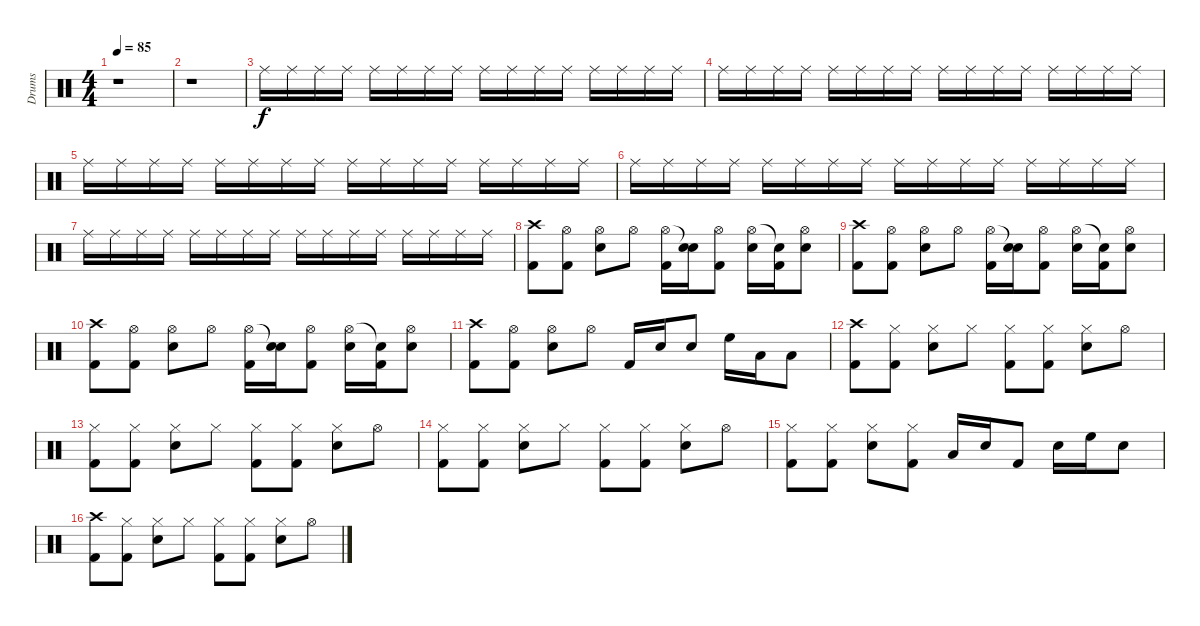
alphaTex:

\track ("Drums" "Drums") {instrument percussion}
\staff {score}
\articulation defaults
\ts (4 4)
\tempo 85
\clef neutral
\ks c
r.1{dy f} |
r.1 |
"Ride (middle)".16 "Ride (middle)".16 "Ride (middle)".16 "Ride (middle)".16 "Ride (middle)".16 "Ride (middle)".16 "Ride (middle)".16 "Ride (middle)".16 "Ride (middle)".16 "Ride (middle)".16 "Ride (middle)".16 "Ride (middle)".16 "Ride (middle)".16 "Ride (middle)".16 "Ride (middle)".16 "Ride (middle)".16 |
"Ride (middle)".16 "Ride (middle)".16 "Ride (middle)".16 "Ride (middle)".16 "Ride (middle)".16 "Ride (middle)".16 "Ride (middle)".16 "Ride (middle)".16 "Ride (middle)".16 "Ride (middle)".16 "Ride (middle)".16 "Ride (middle)".16 "Ride (middle)".16 "Ride (middle)".16 "Ride (middle)".16 "Ride (middle)".16 |
"Ride (middle)".16 "Ride (middle)".16 "Ride (middle)".16 "Ride (middle)".16 "Ride (middle)".16 "Ride (middle)".16 "Ride (middle)".16 "Ride (middle)".16 "Ride (middle)".16 "Ride (middle)".16 "Ride (middle)".16 "Ride (middle)".16 "Ride (middle)".16 "Ride (middle)".16 "Ride (middle)".16 "Ride (middle)".16 |
"Ride (middle)".16 "Ride (middle)".16 "Ride (middle)".16 "Ride (middle)".16 "Ride (middle)".16 "Ride (middle)".16 "Ride (middle)".16 "Ride (middle)".16 "Ride (middle)".16 "Ride (middle)".16 "Ride (middle)".16 "Ride (middle)".16 "Ride (middle)".16 "Ride (middle)".16 "Ride (middle)".16 "Ride (middle)".16 |
"Ride (middle)".16 "Ride (middle)".16 "Ride (middle)".16 "Ride (middle)".16 "Ride (middle)".16 "Ride (middle)".16 "Ride (middle)".16 "Ride (middle)".16 "Ride (middle)".16 "Ride (middle)".16 "Ride (middle)".16 "Ride (middle)".16 "Ride (middle)".16 "Ride (middle)".16 "Ride (middle)".16 "Ride (middle)".16 |
("Crash high (hit)" "Kick (hit) 2").8 ("Hi-Hat (open)" "Kick (hit) 2").8 ("Hi-Hat (open)" "Snare (hit) 2").8 "Hi-Hat (open)".8 ("Hi-Hat (open)" "Kick (hit) 2").16 ("Snare (hit)"{t} "Snare (hit) 2").16 ("Hi-Hat (open)" "Kick (hit) 2").8 ("Hi-Hat (open)" "Snare (hit) 2").16 ("Snare (hit)"{t} "Kick (hit) 2").16 ("Hi-Hat (open)" "Snare (hit) 2").8 |
("Crash high (hit)" "Kick (hit) 2").8 ("Hi-Hat (open)" "Kick (hit) 2").8 ("Hi-Hat (open)" "Snare (hit) 2").8 "Hi-Hat (open)".8 ("Hi-Hat (open)" "Kick (hit) 2").16 ("Snare (hit)"{t} "Snare (hit) 2").16 ("Hi-Hat (open)" "Kick (hit) 2").8 ("Hi-Hat (open)" "Snare (hit) 2").16 ("Snare (hit)"{t} "Kick (hit) 2").16 ("Hi-Hat (open)" "Snare (hit) 2").8 |
("Crash high (hit)" "Kick (hit) 2").8 ("Hi-Hat (open)" "Kick (hit) 2").8 ("Hi-Hat (open)" "Snare (hit) 2").8 "Hi-Hat (open)".8 ("Hi-Hat (open)" "Kick (hit) 2").16 ("Snare (hit)"{t} "Snare (hit) 2").16 ("Hi-Hat (open)" "Kick (hit) 2").8 ("Hi-Hat (open)" "Snare (hit) 2").16 ("Snare (hit)"{t} "Kick (hit) 2").16 ("Hi-Hat (open)" "Snare (hit) 2").8 |
("Crash high (hit)" "Kick (hit) 2").8 ("Hi-Hat (open)" "Kick (hit) 2").8 ("Hi-Hat (open)" "Snare (hit) 2").8 "Hi-Hat (open)".8 "Kick (hit) 2".16 "Snare (hit) 2".16 "Snare (hit) 2".8 "High Floor Tom (hit)".16 "Low Tom (hit)".16 "Low Floor Tom (hit)".8 |
("Crash high (hit)" "Kick (hit) 2").8 ("Hi-Hat (closed)" "Kick (hit) 2").8 ("Hi-Hat (closed)" "Snare (hit) 2").8 "Hi-Hat (closed)".8 ("Hi-Hat (closed)" "Kick (hit) 2").8 ("Hi-Hat (closed)" "Kick (hit) 2").8 ("Hi-Hat (closed)" "Snare (hit) 2").8 "Hi-Hat (open)".8 |
("Hi-Hat (closed)" "Kick (hit) 2").8 ("Hi-Hat (closed)" "Kick (hit) 2").8 ("Hi-Hat (closed)" "Snare (hit) 2").8 "Hi-Hat (closed)".8 ("Hi-Hat (closed)" "Kick (hit) 2").8 ("Hi-Hat (closed)" "Kick (hit) 2").8 ("Hi-Hat (closed)" "Snare (hit) 2").8 "Hi-Hat (open)".8 |
("Hi-Hat (closed)" "Kick (hit) 2").8 ("Hi-Hat (closed)" "Kick (hit) 2").8 ("Hi-Hat (closed)" "Snare (hit) 2").8 "Hi-Hat (closed)".8 ("Hi-Hat (closed)" "Kick (hit) 2").8 ("Hi-Hat (closed)" "Kick (hit) 2").8 ("Hi-Hat (closed)" "Snare (hit) 2").8 "Hi-Hat (open)".8 |
("Hi-Hat (closed)" "Kick (hit) 2").8 ("Hi-Hat (closed)" "Kick (hit) 2").8 ("Hi-Hat (closed)" "Snare (hit) 2").8 ("Hi-Hat (closed)" "Kick (hit) 2").8 "Low Floor Tom (hit)".16 "Snare (hit) 2".16 "Kick (hit) 2".8 "Snare (hit) 2".16 "High Floor Tom (hit)".16 "Snare (hit) 2".8 |
("Crash high (hit)" "Kick (hit) 2").8 ("Hi-Hat (closed)" "Kick (hit) 2").8 ("Hi-Hat (closed)" "Snare (hit) 2").8 "Hi-Hat (closed)".8 ("Hi-Hat (closed)" "Kick (hit) 2").8 ("Hi-Hat (closed)" "Kick (hit) 2").8 ("Hi-Hat (closed)" "Snare (hit) 2").8 "Hi-Hat (open)".8
